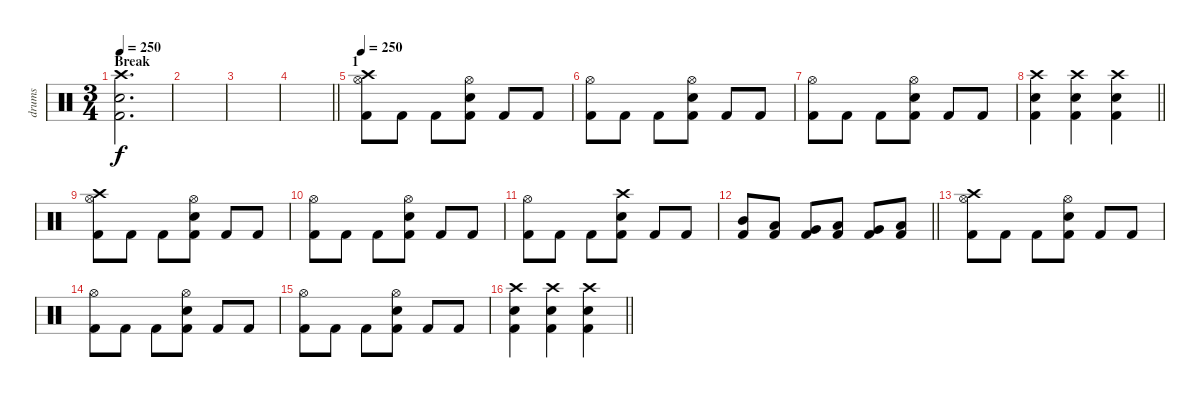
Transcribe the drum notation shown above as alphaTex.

\track ("drums" "drums") {instrument percussion}
\staff {score}
\articulation defaults
\ts (3 4)
\section ("" "Break")
\tempo 250
\clef neutral
\ks c
("Crash high (hit)" "Electric Snare (hit)" "Kick (hit) 2").2{d dy f} |
|
|
\barLineRight lightlight
|
\section ("" "1")
\tempo 250
("Hi-Hat (open)" "Crash high (hit)" "Kick (hit) 2").8 "Kick (hit) 2".8 "Kick (hit) 2".8 ("Hi-Hat (open)" "Electric Snare (hit)" "Kick (hit) 2").8 "Kick (hit) 2".8 "Kick (hit) 2".8 |
("Hi-Hat (open)" "Kick (hit) 2").8 "Kick (hit) 2".8 "Kick (hit) 2".8 ("Hi-Hat (open)" "Electric Snare (hit)" "Kick (hit) 2").8 "Kick (hit) 2".8 "Kick (hit) 2".8 |
("Hi-Hat (open)" "Kick (hit) 2").8 "Kick (hit) 2".8 "Kick (hit) 2".8 ("Hi-Hat (open)" "Electric Snare (hit)" "Kick (hit) 2").8 "Kick (hit) 2".8 "Kick (hit) 2".8 |
\barLineRight lightlight
("Crash high (hit)" "Electric Snare (hit)" "Kick (hit) 2").4 ("Crash high (hit)" "Electric Snare (hit)" "Kick (hit) 2").4 ("Crash high (hit)" "Electric Snare (hit)" "Kick (hit) 2").4 |
("Hi-Hat (open)" "Crash high (hit)" "Kick (hit) 2").8 "Kick (hit) 2".8 "Kick (hit) 2".8 ("Hi-Hat (open)" "Electric Snare (hit)" "Kick (hit) 2").8 "Kick (hit) 2".8 "Kick (hit) 2".8 |
("Hi-Hat (open)" "Kick (hit) 2").8 "Kick (hit) 2".8 "Kick (hit) 2".8 ("Hi-Hat (open)" "Electric Snare (hit)" "Kick (hit) 2").8 "Kick (hit) 2".8 "Kick (hit) 2".8 |
("Hi-Hat (open)" "Kick (hit) 2").8 "Kick (hit) 2".8 "Kick (hit) 2".8 ("Crash high (hit)" "Electric Snare (hit)" "Kick (hit) 2").8 "Kick (hit) 2".8 "Kick (hit) 2".8 |
\barLineRight lightlight
("Mid Tom (hit)" "Kick (hit) 2").8 ("Low Tom (hit)" "Kick (hit) 2").8 ("Very Low Tom (hit)" "Kick (hit) 2").8 ("Low Tom (hit)" "Kick (hit) 2").8 ("Very Low Tom (hit)" "Kick (hit) 2").8 ("Low Floor Tom (hit)" "Kick (hit) 2").8 |
("Hi-Hat (open)" "Crash high (hit)" "Kick (hit) 2").8 "Kick (hit) 2".8 "Kick (hit) 2".8 ("Hi-Hat (open)" "Electric Snare (hit)" "Kick (hit) 2").8 "Kick (hit) 2".8 "Kick (hit) 2".8 |
("Hi-Hat (open)" "Kick (hit) 2").8 "Kick (hit) 2".8 "Kick (hit) 2".8 ("Hi-Hat (open)" "Electric Snare (hit)" "Kick (hit) 2").8 "Kick (hit) 2".8 "Kick (hit) 2".8 |
("Hi-Hat (open)" "Kick (hit) 2").8 "Kick (hit) 2".8 "Kick (hit) 2".8 ("Hi-Hat (open)" "Electric Snare (hit)" "Kick (hit) 2").8 "Kick (hit) 2".8 "Kick (hit) 2".8 |
\barLineRight lightlight
("Crash high (hit)" "Electric Snare (hit)" "Kick (hit) 2").4 ("Crash high (hit)" "Electric Snare (hit)" "Kick (hit) 2").4 ("Crash high (hit)" "Electric Snare (hit)" "Kick (hit) 2").4
